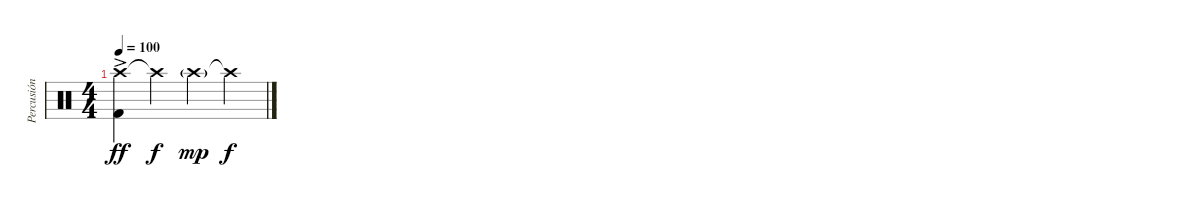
\track ("Percusión" "Percusión") {instrument percussion}
\staff {score}
\articulation defaults
\ts (4 4)
\tempo 100
\clef neutral
\ks c
("Crash high (hit)"{ac} "Kick (hit) 2").4{dy ff} "Crash high (hit)"{t}.4{dy f} "Crash high (hit)"{g}.4{dy mp} "Crash high (hit)"{t}.4{dy f}
